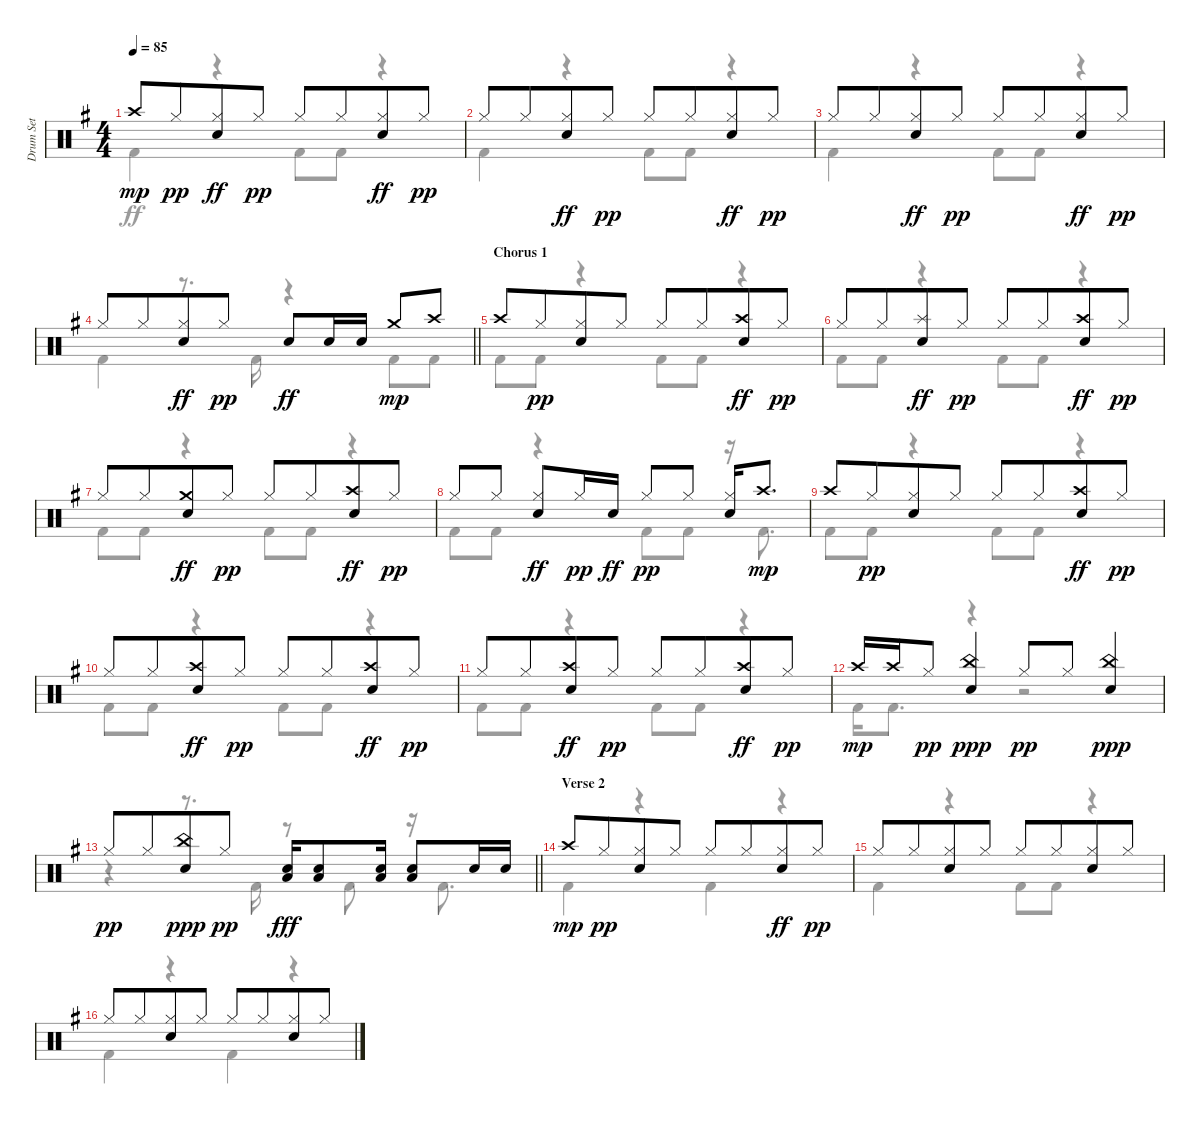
\track ("Drum Set" "Drum Set") {instrument percussion}
\staff {score}
\articulation defaults
\voice
\ts (4 4)
\tempo 85
\clef neutral
\ks g "Crash high (hit)".8{dy mp} "Hi-Hat (closed)".8{dy pp beam merge}
("Hi-Hat (closed)" "Electric Snare (hit)").8{dy ff} "Hi-Hat (closed)".8{dy pp} "Hi-Hat (closed)".8 "Hi-Hat (closed)".8{beam merge} ("Hi-Hat (closed)" "Electric Snare (hit)").8{dy ff} "Hi-Hat (closed)".8{dy pp} |
"Hi-Hat (closed)".8 "Hi-Hat (closed)".8{beam merge} ("Hi-Hat (closed)" "Electric Snare (hit)").8{dy ff} "Hi-Hat (closed)".8{dy pp} "Hi-Hat (closed)".8 "Hi-Hat (closed)".8{beam merge} ("Hi-Hat (closed)" "Electric Snare (hit)").8{dy ff} "Hi-Hat (closed)".8{dy pp} |
"Hi-Hat (closed)".8 "Hi-Hat (closed)".8{beam merge} ("Hi-Hat (closed)" "Electric Snare (hit)").8{dy ff} "Hi-Hat (closed)".8{dy pp} "Hi-Hat (closed)".8 "Hi-Hat (closed)".8{beam merge} ("Hi-Hat (closed)" "Electric Snare (hit)").8{dy ff} "Hi-Hat (closed)".8{dy pp} |
\barLineRight lightlight "Hi-Hat (closed)".8 "Hi-Hat (closed)".8{beam merge}
("Hi-Hat (closed)" "Electric Snare (hit)").8{dy ff} "Hi-Hat (closed)".8{dy pp} "Electric Snare (hit)".8{dy ff} "Electric Snare (hit)".16 "Electric Snare (hit)".16 "Crash medium (hit)".8{dy mp} "Crash high (hit)".8 |
\section ("" "Chorus 1")
"Crash high (hit)".8 "Hi-Hat (closed)".8{dy pp beam merge} ("Hi-Hat (closed)" "Electric Snare (hit)").8 "Hi-Hat (closed)".8 "Hi-Hat (closed)".8 "Hi-Hat (closed)".8{beam merge} ("Crash high (hit)" "Electric Snare (hit)").8{dy ff} "Hi-Hat (closed)".8{dy pp} |
"Hi-Hat (closed)".8 "Hi-Hat (closed)".8{beam merge} ("Splash (hit)" "Electric Snare (hit)").8{dy ff} "Hi-Hat (closed)".8{dy pp} "Hi-Hat (closed)".8 "Hi-Hat (closed)".8{beam merge} ("Crash high (hit)" "Electric Snare (hit)").8{dy ff} "Hi-Hat (closed)".8{dy pp} |
"Hi-Hat (closed)".8 "Hi-Hat (closed)".8{beam merge} ("Crash medium (hit)" "Electric Snare (hit)").8{dy ff} "Hi-Hat (closed)".8{dy pp} "Hi-Hat (closed)".8 "Hi-Hat (closed)".8{beam merge} ("Crash high (hit)" "Electric Snare (hit)").8{dy ff} "Hi-Hat (closed)".8{dy pp} |
"Hi-Hat (closed)".8 "Hi-Hat (closed)".8 ("Hi-Hat (closed)" "Electric Snare (hit)").8{dy ff} "Hi-Hat (closed)".16{dy pp} "Electric Snare (hit)".16{dy ff} "Hi-Hat (closed)".8{dy pp} "Hi-Hat (closed)".8 ("Hi-Hat (closed)" "Electric Snare (hit)").16 "Crash high (hit)".8{d dy mp} |
"Crash high (hit)".8 "Hi-Hat (closed)".8{dy pp beam merge} ("Hi-Hat (closed)" "Electric Snare (hit)").8 "Hi-Hat (closed)".8 "Hi-Hat (closed)".8 "Hi-Hat (closed)".8{beam merge} ("Crash high (hit)" "Electric Snare (hit)").8{dy ff} "Hi-Hat (closed)".8{dy pp} |
"Hi-Hat (closed)".8 "Hi-Hat (closed)".8{beam merge} ("Crash high (hit)" "Electric Snare (hit)").8{dy ff} "Hi-Hat (closed)".8{dy pp} "Hi-Hat (closed)".8 "Hi-Hat (closed)".8{beam merge} ("Crash high (hit)" "Electric Snare (hit)").8{dy ff} "Hi-Hat (closed)".8{dy pp} |
"Hi-Hat (closed)".8 "Hi-Hat (closed)".8{beam merge} ("Crash high (hit)" "Electric Snare (hit)").8{dy ff} "Hi-Hat (closed)".8{dy pp} "Hi-Hat (closed)".8 "Hi-Hat (closed)".8{beam merge} ("Crash high (hit)" "Electric Snare (hit)").8{dy ff} "Hi-Hat (closed)".8{dy pp} |
"Crash high (hit)".16{dy mp} "Crash high (hit)".16 "Hi-Hat (closed)".8{dy pp} ("Electric Snare (hit)" "China (hit)").4{dy ppp} "Hi-Hat (closed)".8{dy pp} "Hi-Hat (closed)".8 ("Electric Snare (hit)" "China (hit)").4{dy ppp} |
\barLineRight lightlight "Hi-Hat (closed)".8{dy pp} "Hi-Hat (closed)".8{beam merge}
("Electric Snare (hit)" "China (hit)").8{dy ppp} "Hi-Hat (closed)".8{dy pp} ("Electric Snare (hit)" "Low Tom (hit)").16{dy fff} ("Electric Snare (hit)" "Low Tom (hit)").8 ("Electric Snare (hit)" "Low Tom (hit)").16 ("Electric Snare (hit)" "Low Tom (hit)").8 "Electric Snare (hit)".16 "Electric Snare (hit)".16 |
\section ("" "Verse 2")
"Crash high (hit)".8{dy mp} "Hi-Hat (closed)".8{dy pp beam merge} ("Hi-Hat (closed)" "Electric Snare (hit)").8 "Hi-Hat (closed)".8 "Hi-Hat (closed)".8 "Hi-Hat (closed)".8{beam merge} ("Hi-Hat (closed)" "Electric Snare (hit)").8{dy ff} "Hi-Hat (closed)".8{dy pp} |
"Hi-Hat (closed)".8 "Hi-Hat (closed)".8{beam merge} ("Hi-Hat (closed)" "Electric Snare (hit)").8 "Hi-Hat (closed)".8 "Hi-Hat (closed)".8 "Hi-Hat (closed)".8{beam merge} ("Hi-Hat (closed)" "Electric Snare (hit)").8 "Hi-Hat (closed)".8 |
"Hi-Hat (closed)".8 "Hi-Hat (closed)".8{beam merge} ("Hi-Hat (closed)" "Electric Snare (hit)").8 "Hi-Hat (closed)".8 "Hi-Hat (closed)".8 "Hi-Hat (closed)".8{beam merge} ("Hi-Hat (closed)" "Electric Snare (hit)").8 "Hi-Hat (closed)".8
\voice
\clef neutral
\ottava regular
\simile none
\ks g "Kick (hit) 2".4{dy ff}
r.4 "Kick (hit) 2".8 "Kick (hit) 2".8 r.4 |
"Kick (hit) 2".4 r.4 "Kick (hit) 2".8 "Kick (hit) 2".8 r.4 |
"Kick (hit) 2".4 r.4 "Kick (hit) 2".8 "Kick (hit) 2".8 r.4 |
\barLineRight lightlight "Kick (hit) 2".4
r.8{d} "Kick (hit) 2".16 r.4 "Kick (hit) 2".8 "Kick (hit) 2".8 |
"Kick (hit) 2".8 "Kick (hit) 2".8 r.4 "Kick (hit) 2".8 "Kick (hit) 2".8 r.4 |
"Kick (hit) 2".8 "Kick (hit) 2".8 r.4 "Kick (hit) 2".8 "Kick (hit) 2".8 r.4 |
"Kick (hit) 2".8 "Kick (hit) 2".8 r.4 "Kick (hit) 2".8 "Kick (hit) 2".8 r.4 |
"Kick (hit) 2".8 "Kick (hit) 2".8 r.4 "Kick (hit) 2".8 "Kick (hit) 2".8 r.16 "Kick (hit) 2".8{d} |
"Kick (hit) 2".8 "Kick (hit) 2".8 r.4 "Kick (hit) 2".8 "Kick (hit) 2".8 r.4 |
"Kick (hit) 2".8 "Kick (hit) 2".8 r.4 "Kick (hit) 2".8 "Kick (hit) 2".8 r.4 |
"Kick (hit) 2".8 "Kick (hit) 2".8 r.4 "Kick (hit) 2".8 "Kick (hit) 2".8 r.4 |
"Kick (hit) 2".16 "Kick (hit) 2".8{d} r.4 r.2 |
\barLineRight lightlight
r.4 r.8{d} "Kick (hit) 2".16 r.8 "Kick (hit) 2".8 r.16 "Kick (hit) 2".8{d} |
"Kick (hit) 2".4 r.4 "Kick (hit) 2".4 r.4 |
"Kick (hit) 2".4 r.4 "Kick (hit) 2".8 "Kick (hit) 2".8 r.4 |
"Kick (hit) 2".4 r.4 "Kick (hit) 2".4 r.4
